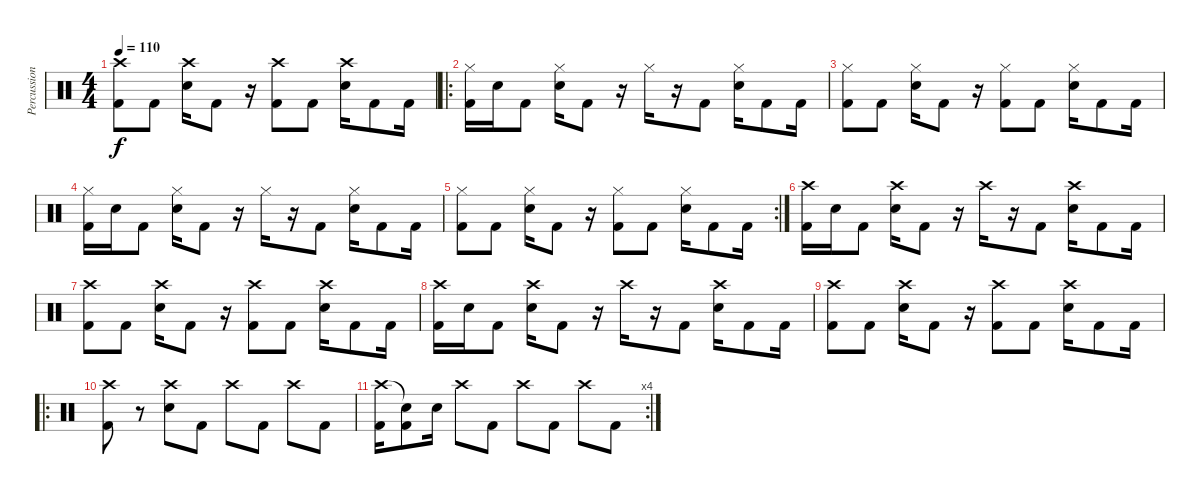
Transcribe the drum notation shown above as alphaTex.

\track ("Percussion" "Percussion") {instrument percussion}
\staff {score}
\articulation defaults
\ts (4 4)
\tempo 110
\clef neutral
\ks c
("Crash high (hit)" "Kick (hit) 2").8{dy f} "Kick (hit) 2".8 ("Crash high (hit)" "Snare (hit) 2").16 "Kick (hit) 2".8 r.16 ("Crash high (hit)" "Kick (hit) 2").8 "Kick (hit) 2".8 ("Crash high (hit)" "Snare (hit) 2").16 "Kick (hit) 2".8 "Kick (hit) 2".16 |
\ro
("Hi-Hat (closed)" "Kick (hit) 2").16 "Snare (hit) 2".16 "Kick (hit) 2".8 ("Hi-Hat (closed)" "Snare (hit) 2").16 "Kick (hit) 2".8 r.16 "Hi-Hat (closed)".16 r.16 "Kick (hit) 2".8 ("Hi-Hat (closed)" "Snare (hit) 2").16 "Kick (hit) 2".8 "Kick (hit) 2".16 |
("Hi-Hat (closed)" "Kick (hit) 2").8 "Kick (hit) 2".8 ("Hi-Hat (closed)" "Snare (hit) 2").16 "Kick (hit) 2".8 r.16 ("Hi-Hat (closed)" "Kick (hit) 2").8 "Kick (hit) 2".8 ("Hi-Hat (closed)" "Snare (hit) 2").16 "Kick (hit) 2".8 "Kick (hit) 2".16 |
("Hi-Hat (closed)" "Kick (hit) 2").16 "Snare (hit) 2".16 "Kick (hit) 2".8 ("Hi-Hat (closed)" "Snare (hit) 2").16 "Kick (hit) 2".8 r.16 "Hi-Hat (closed)".16 r.16 "Kick (hit) 2".8 ("Hi-Hat (closed)" "Snare (hit) 2").16 "Kick (hit) 2".8 "Kick (hit) 2".16 |
\rc 2
("Hi-Hat (closed)" "Kick (hit) 2").8 "Kick (hit) 2".8 ("Hi-Hat (closed)" "Snare (hit) 2").16 "Kick (hit) 2".8 r.16 ("Hi-Hat (closed)" "Kick (hit) 2").8 "Kick (hit) 2".8 ("Hi-Hat (closed)" "Snare (hit) 2").16 "Kick (hit) 2".8 "Kick (hit) 2".16 |
("Crash high (hit)" "Kick (hit) 2").16 "Snare (hit) 2".16 "Kick (hit) 2".8 ("Crash high (hit)" "Snare (hit) 2").16 "Kick (hit) 2".8 r.16 "Crash high (hit)".16 r.16 "Kick (hit) 2".8 ("Crash high (hit)" "Snare (hit) 2").16 "Kick (hit) 2".8 "Kick (hit) 2".16 |
("Crash high (hit)" "Kick (hit) 2").8 "Kick (hit) 2".8 ("Crash high (hit)" "Snare (hit) 2").16 "Kick (hit) 2".8 r.16 ("Crash high (hit)" "Kick (hit) 2").8 "Kick (hit) 2".8 ("Crash high (hit)" "Snare (hit) 2").16 "Kick (hit) 2".8 "Kick (hit) 2".16 |
("Crash high (hit)" "Kick (hit) 2").16 "Snare (hit) 2".16 "Kick (hit) 2".8 ("Crash high (hit)" "Snare (hit) 2").16 "Kick (hit) 2".8 r.16 "Crash high (hit)".16 r.16 "Kick (hit) 2".8 ("Crash high (hit)" "Snare (hit) 2").16 "Kick (hit) 2".8 "Kick (hit) 2".16 |
("Crash high (hit)" "Kick (hit) 2").8 "Kick (hit) 2".8 ("Crash high (hit)" "Snare (hit) 2").16 "Kick (hit) 2".8 r.16 ("Crash high (hit)" "Kick (hit) 2").8 "Kick (hit) 2".8 ("Crash high (hit)" "Snare (hit) 2").16 "Kick (hit) 2".8 "Kick (hit) 2".16 |
\ro
("Crash high (hit)" "Kick (hit) 2").8 r.8 ("Crash high (hit)" "Snare (hit) 2").8 "Kick (hit) 2".8 "Crash high (hit)".8 "Kick (hit) 2".8 "Crash high (hit)".8 "Kick (hit) 2".8 |
\rc 4
("Crash high (hit)" "Kick (hit) 2").16 ("Snare (hit)"{t} "Kick (hit) 2").8 "Snare (hit) 2".16 "Crash high (hit)".8 "Kick (hit) 2".8 "Crash high (hit)".8 "Kick (hit) 2".8 "Crash high (hit)".8 "Kick (hit) 2".8
